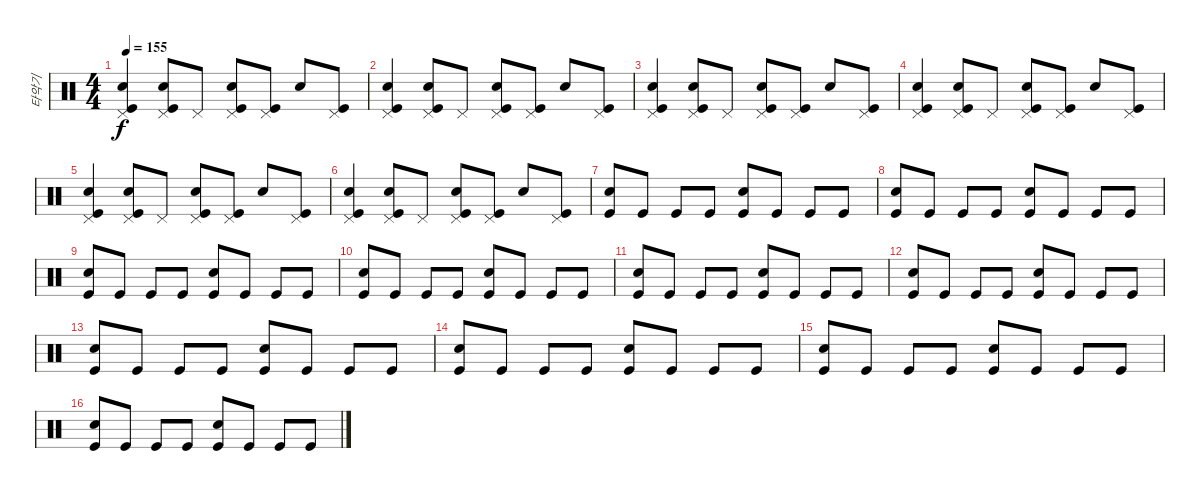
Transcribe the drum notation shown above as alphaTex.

\track ("타악기" "타악기") {instrument percussion}
\staff {score}
\articulation defaults
\ts (4 4)
\tempo 155
\clef neutral
\ks c
("Pedal Hi-Hat (hit)" "Snare (hit) 2" "Kick (hit)").4{dy f} ("Pedal Hi-Hat (hit)" "Electric Snare (hit)" "Kick (hit)").8 "Pedal Hi-Hat (hit)".8 ("Pedal Hi-Hat (hit)" "Snare (hit) 2" "Kick (hit)").8 ("Pedal Hi-Hat (hit)" "Kick (hit)").8 "Electric Snare (hit)".8 ("Pedal Hi-Hat (hit)" "Kick (hit)").8 |
("Pedal Hi-Hat (hit)" "Snare (hit) 2" "Kick (hit)").4 ("Pedal Hi-Hat (hit)" "Electric Snare (hit)" "Kick (hit)").8 "Pedal Hi-Hat (hit)".8 ("Pedal Hi-Hat (hit)" "Snare (hit) 2" "Kick (hit)").8 ("Pedal Hi-Hat (hit)" "Kick (hit)").8 "Electric Snare (hit)".8 ("Pedal Hi-Hat (hit)" "Kick (hit)").8 |
("Pedal Hi-Hat (hit)" "Snare (hit) 2" "Kick (hit)").4 ("Pedal Hi-Hat (hit)" "Electric Snare (hit)" "Kick (hit)").8 "Pedal Hi-Hat (hit)".8 ("Pedal Hi-Hat (hit)" "Snare (hit) 2" "Kick (hit)").8 ("Pedal Hi-Hat (hit)" "Kick (hit)").8 "Electric Snare (hit)".8 ("Pedal Hi-Hat (hit)" "Kick (hit)").8 |
("Pedal Hi-Hat (hit)" "Snare (hit) 2" "Kick (hit)").4 ("Pedal Hi-Hat (hit)" "Electric Snare (hit)" "Kick (hit)").8 "Pedal Hi-Hat (hit)".8 ("Pedal Hi-Hat (hit)" "Snare (hit) 2" "Kick (hit)").8 ("Pedal Hi-Hat (hit)" "Kick (hit)").8 "Electric Snare (hit)".8 ("Pedal Hi-Hat (hit)" "Kick (hit)").8 |
("Pedal Hi-Hat (hit)" "Snare (hit) 2" "Kick (hit)").4 ("Pedal Hi-Hat (hit)" "Electric Snare (hit)" "Kick (hit)").8 "Pedal Hi-Hat (hit)".8 ("Pedal Hi-Hat (hit)" "Snare (hit) 2" "Kick (hit)").8 ("Pedal Hi-Hat (hit)" "Kick (hit)").8 "Electric Snare (hit)".8 ("Pedal Hi-Hat (hit)" "Kick (hit)").8 |
("Pedal Hi-Hat (hit)" "Snare (hit) 2" "Kick (hit)").4 ("Pedal Hi-Hat (hit)" "Electric Snare (hit)" "Kick (hit)").8 "Pedal Hi-Hat (hit)".8 ("Pedal Hi-Hat (hit)" "Snare (hit) 2" "Kick (hit)").8 ("Pedal Hi-Hat (hit)" "Kick (hit)").8 "Electric Snare (hit)".8 ("Pedal Hi-Hat (hit)" "Kick (hit)").8 |
("Electric Snare (hit)" "Kick (hit)").8 "Kick (hit)".8 "Kick (hit)".8 "Kick (hit)".8 ("Electric Snare (hit)" "Kick (hit)").8 "Kick (hit)".8 "Kick (hit)".8 "Kick (hit)".8 |
("Electric Snare (hit)" "Kick (hit)").8 "Kick (hit)".8 "Kick (hit)".8 "Kick (hit)".8 ("Electric Snare (hit)" "Kick (hit)").8 "Kick (hit)".8 "Kick (hit)".8 "Kick (hit)".8 |
("Electric Snare (hit)" "Kick (hit)").8 "Kick (hit)".8 "Kick (hit)".8 "Kick (hit)".8 ("Electric Snare (hit)" "Kick (hit)").8 "Kick (hit)".8 "Kick (hit)".8 "Kick (hit)".8 |
("Electric Snare (hit)" "Kick (hit)").8 "Kick (hit)".8 "Kick (hit)".8 "Kick (hit)".8 ("Electric Snare (hit)" "Kick (hit)").8 "Kick (hit)".8 "Kick (hit)".8 "Kick (hit)".8 |
("Electric Snare (hit)" "Kick (hit)").8 "Kick (hit)".8 "Kick (hit)".8 "Kick (hit)".8 ("Electric Snare (hit)" "Kick (hit)").8 "Kick (hit)".8 "Kick (hit)".8 "Kick (hit)".8 |
("Electric Snare (hit)" "Kick (hit)").8 "Kick (hit)".8 "Kick (hit)".8 "Kick (hit)".8 ("Electric Snare (hit)" "Kick (hit)").8 "Kick (hit)".8 "Kick (hit)".8 "Kick (hit)".8 |
("Electric Snare (hit)" "Kick (hit)").8 "Kick (hit)".8 "Kick (hit)".8 "Kick (hit)".8 ("Electric Snare (hit)" "Kick (hit)").8 "Kick (hit)".8 "Kick (hit)".8 "Kick (hit)".8 |
("Electric Snare (hit)" "Kick (hit)").8 "Kick (hit)".8 "Kick (hit)".8 "Kick (hit)".8 ("Electric Snare (hit)" "Kick (hit)").8 "Kick (hit)".8 "Kick (hit)".8 "Kick (hit)".8 |
("Electric Snare (hit)" "Kick (hit)").8 "Kick (hit)".8 "Kick (hit)".8 "Kick (hit)".8 ("Electric Snare (hit)" "Kick (hit)").8 "Kick (hit)".8 "Kick (hit)".8 "Kick (hit)".8 |
("Electric Snare (hit)" "Kick (hit)").8 "Kick (hit)".8 "Kick (hit)".8 "Kick (hit)".8 ("Electric Snare (hit)" "Kick (hit)").8 "Kick (hit)".8 "Kick (hit)".8 "Kick (hit)".8
